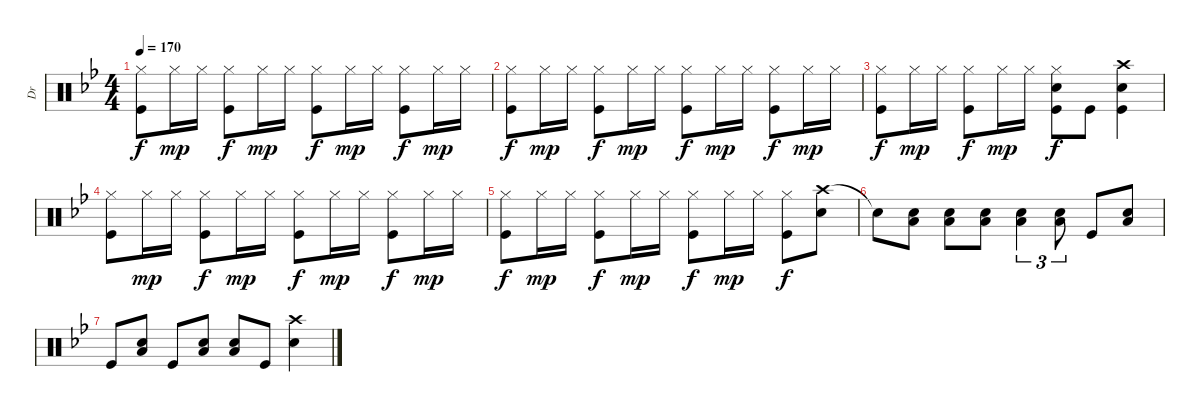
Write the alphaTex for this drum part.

\track ("Dr" "Dr") {instrument percussion}
\staff {score}
\articulation defaults
\ts (4 4)
\tempo 170
\clef neutral
\ks bb
("Hi-Hat (closed)" "Kick (hit)").8{dy f} "Hi-Hat (closed)".16{dy mp} "Hi-Hat (closed)".16 ("Hi-Hat (closed)" "Kick (hit)").8{dy f} "Hi-Hat (closed)".16{dy mp} "Hi-Hat (closed)".16 ("Hi-Hat (closed)" "Kick (hit)").8{dy f} "Hi-Hat (closed)".16{dy mp} "Hi-Hat (closed)".16 ("Hi-Hat (closed)" "Kick (hit)").8{dy f} "Hi-Hat (closed)".16{dy mp} "Hi-Hat (closed)".16 |
("Hi-Hat (closed)" "Kick (hit)").8{dy f} "Hi-Hat (closed)".16{dy mp} "Hi-Hat (closed)".16 ("Hi-Hat (closed)" "Kick (hit)").8{dy f} "Hi-Hat (closed)".16{dy mp} "Hi-Hat (closed)".16 ("Hi-Hat (closed)" "Kick (hit)").8{dy f} "Hi-Hat (closed)".16{dy mp} "Hi-Hat (closed)".16 ("Hi-Hat (closed)" "Kick (hit)").8{dy f} "Hi-Hat (closed)".16{dy mp} "Hi-Hat (closed)".16 |
("Hi-Hat (closed)" "Kick (hit)").8{dy f} "Hi-Hat (closed)".16{dy mp} "Hi-Hat (closed)".16 ("Hi-Hat (closed)" "Kick (hit)").8{dy f} "Hi-Hat (closed)".16{dy mp} "Hi-Hat (closed)".16 ("Hi-Hat (closed)" "Electric Snare (hit)" "Kick (hit)").8{dy f} "Kick (hit)".8 ("Crash high (hit)" "Electric Snare (hit)" "Kick (hit)").4 |
("Hi-Hat (closed)" "Kick (hit)").8 "Hi-Hat (closed)".16{dy mp} "Hi-Hat (closed)".16 ("Hi-Hat (closed)" "Kick (hit)").8{dy f} "Hi-Hat (closed)".16{dy mp} "Hi-Hat (closed)".16 ("Hi-Hat (closed)" "Kick (hit)").8{dy f} "Hi-Hat (closed)".16{dy mp} "Hi-Hat (closed)".16 ("Hi-Hat (closed)" "Kick (hit)").8{dy f} "Hi-Hat (closed)".16{dy mp} "Hi-Hat (closed)".16 |
("Hi-Hat (closed)" "Kick (hit)").8{dy f} "Hi-Hat (closed)".16{dy mp} "Hi-Hat (closed)".16 ("Hi-Hat (closed)" "Kick (hit)").8{dy f} "Hi-Hat (closed)".16{dy mp} "Hi-Hat (closed)".16 ("Hi-Hat (closed)" "Kick (hit)").8{dy f} "Hi-Hat (closed)".16{dy mp} "Hi-Hat (closed)".16 ("Hi-Hat (closed)" "Kick (hit)").8{dy f} ("Crash high (hit)" "Electric Snare (hit)").8 |
"Snare (hit)"{t}.8 ("Electric Snare (hit)" "Low Floor Tom (hit)").8 ("Electric Snare (hit)" "Low Floor Tom (hit)").8 ("Electric Snare (hit)" "Low Floor Tom (hit)").8 ("Electric Snare (hit)" "Low Floor Tom (hit)").4{tu (3 2)} ("Electric Snare (hit)" "Low Floor Tom (hit)").8{tu (3 2)} "Kick (hit)".8 ("Electric Snare (hit)" "Low Floor Tom (hit)").8 |
"Kick (hit)".8 ("Electric Snare (hit)" "Low Floor Tom (hit)").8 "Kick (hit)".8 ("Electric Snare (hit)" "Low Floor Tom (hit)").8 ("Electric Snare (hit)" "Low Floor Tom (hit)").8 "Kick (hit)".8 ("Crash high (hit)" "Electric Snare (hit)").4
